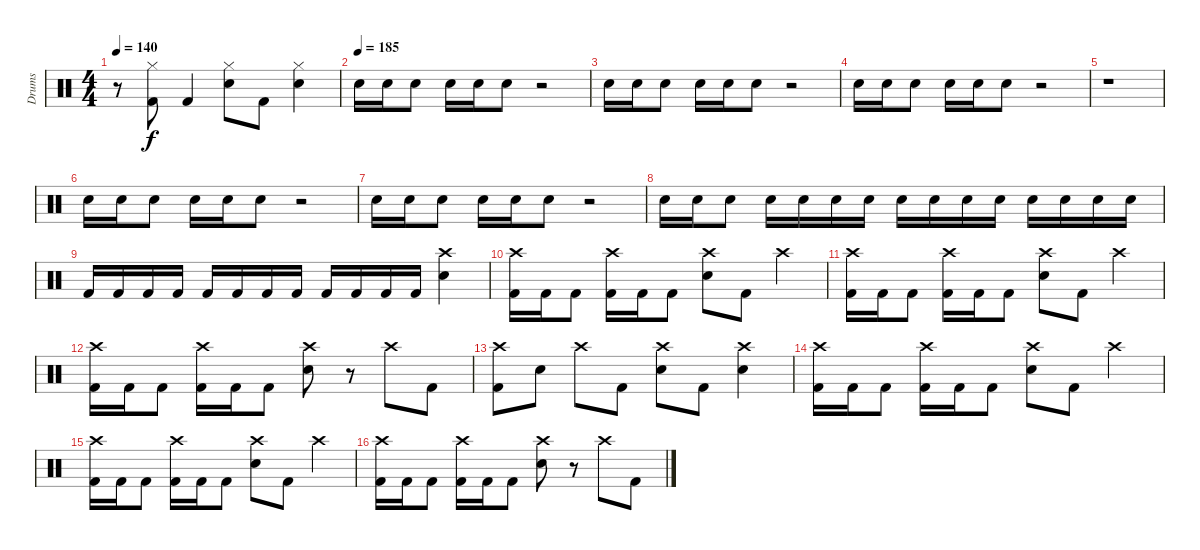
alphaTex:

\track ("Drums" "Drums") {instrument percussion}
\staff {score}
\articulation defaults
\ts (4 4)
\tempo 140
\clef neutral
\ks c
r.8{dy f} ("Hi-Hat (closed)" "Kick (hit) 2").8 "Kick (hit) 2".4 ("Hi-Hat (closed)" "Snare (hit) 2").8 "Kick (hit) 2".8 ("Hi-Hat (closed)" "Snare (hit) 2").4 |
\tempo (185)
"Snare (hit) 2".16 "Snare (hit) 2".16 "Snare (hit) 2".8 "Snare (hit) 2".16 "Snare (hit) 2".16 "Snare (hit) 2".8 r.2 |
"Snare (hit) 2".16 "Snare (hit) 2".16 "Snare (hit) 2".8 "Snare (hit) 2".16 "Snare (hit) 2".16 "Snare (hit) 2".8 r.2 |
"Snare (hit) 2".16 "Snare (hit) 2".16 "Snare (hit) 2".8 "Snare (hit) 2".16 "Snare (hit) 2".16 "Snare (hit) 2".8 r.2 |
r.1 |
"Snare (hit) 2".16 "Snare (hit) 2".16 "Snare (hit) 2".8 "Snare (hit) 2".16 "Snare (hit) 2".16 "Snare (hit) 2".8 r.2 |
"Snare (hit) 2".16 "Snare (hit) 2".16 "Snare (hit) 2".8 "Snare (hit) 2".16 "Snare (hit) 2".16 "Snare (hit) 2".8 r.2 |
"Snare (hit) 2".16 "Snare (hit) 2".16 "Snare (hit) 2".8 "Snare (hit) 2".16 "Snare (hit) 2".16 "Snare (hit) 2".16 "Snare (hit) 2".16 "Snare (hit) 2".16 "Snare (hit) 2".16 "Snare (hit) 2".16 "Snare (hit) 2".16 "Snare (hit) 2".16 "Snare (hit) 2".16 "Snare (hit) 2".16 "Snare (hit) 2".16 |
"Kick (hit) 2".16 "Kick (hit) 2".16 "Kick (hit) 2".16 "Kick (hit) 2".16 "Kick (hit) 2".16 "Kick (hit) 2".16 "Kick (hit) 2".16 "Kick (hit) 2".16 "Kick (hit) 2".16 "Kick (hit) 2".16 "Kick (hit) 2".16 "Kick (hit) 2".16 ("Crash high (hit)" "Snare (hit) 2").4 |
("Crash high (hit)" "Kick (hit) 2").16 "Kick (hit) 2".16 "Kick (hit) 2".8 ("Crash high (hit)" "Kick (hit) 2").16 "Kick (hit) 2".16 "Kick (hit) 2".8 ("Crash high (hit)" "Snare (hit) 2").8 "Kick (hit) 2".8 "Crash high (hit)".4 |
("Crash high (hit)" "Kick (hit) 2").16 "Kick (hit) 2".16 "Kick (hit) 2".8 ("Crash high (hit)" "Kick (hit) 2").16 "Kick (hit) 2".16 "Kick (hit) 2".8 ("Crash high (hit)" "Snare (hit) 2").8 "Kick (hit) 2".8 "Crash high (hit)".4 |
("Crash high (hit)" "Kick (hit) 2").16 "Kick (hit) 2".16 "Kick (hit) 2".8 ("Crash high (hit)" "Kick (hit) 2").16 "Kick (hit) 2".16 "Kick (hit) 2".8 ("Crash high (hit)" "Snare (hit) 2").8 r.8 "Crash high (hit)".8 "Kick (hit) 2".8 |
("Crash high (hit)" "Kick (hit) 2").8 "Snare (hit) 2".8 "Crash high (hit)".8 "Kick (hit) 2".8 ("Crash high (hit)" "Snare (hit) 2").8 "Kick (hit) 2".8 ("Crash high (hit)" "Snare (hit) 2").4 |
("Crash high (hit)" "Kick (hit) 2").16 "Kick (hit) 2".16 "Kick (hit) 2".8 ("Crash high (hit)" "Kick (hit) 2").16 "Kick (hit) 2".16 "Kick (hit) 2".8 ("Crash high (hit)" "Snare (hit) 2").8 "Kick (hit) 2".8 "Crash high (hit)".4 |
("Crash high (hit)" "Kick (hit) 2").16 "Kick (hit) 2".16 "Kick (hit) 2".8 ("Crash high (hit)" "Kick (hit) 2").16 "Kick (hit) 2".16 "Kick (hit) 2".8 ("Crash high (hit)" "Snare (hit) 2").8 "Kick (hit) 2".8 "Crash high (hit)".4 |
("Crash high (hit)" "Kick (hit) 2").16 "Kick (hit) 2".16 "Kick (hit) 2".8 ("Crash high (hit)" "Kick (hit) 2").16 "Kick (hit) 2".16 "Kick (hit) 2".8 ("Crash high (hit)" "Snare (hit) 2").8 r.8 "Crash high (hit)".8 "Kick (hit) 2".8
